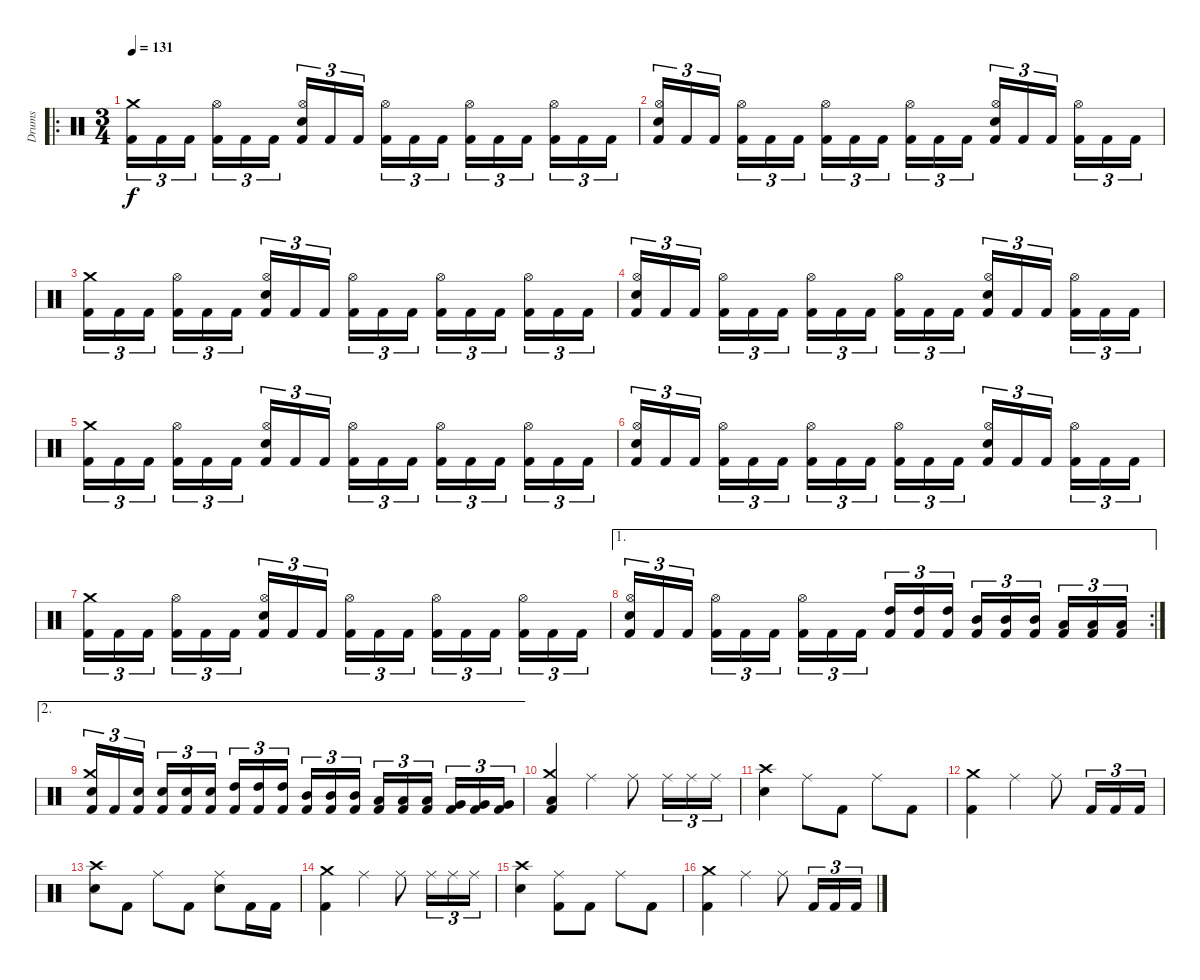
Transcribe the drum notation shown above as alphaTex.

\track ("Drums" "Drums") {instrument percussion}
\staff {score}
\articulation defaults
\ro
\ts (3 4)
\tempo 131
\clef neutral
\ks c
("Kick (hit) 2" "Crash medium (hit)").16{tu (3 2) dy f} "Kick (hit) 2".16{tu (3 2)} "Kick (hit) 2".16{tu (3 2)} ("Kick (hit) 2" "Hi-Hat (open)").16{tu (3 2)} "Kick (hit) 2".16{tu (3 2)} "Kick (hit) 2".16{tu (3 2)} ("Kick (hit) 2" "Electric Snare (hit)" "Hi-Hat (open)").16{tu (3 2)} "Kick (hit) 2".16{tu (3 2)} "Kick (hit) 2".16{tu (3 2)} ("Kick (hit) 2" "Hi-Hat (open)").16{tu (3 2)} "Kick (hit) 2".16{tu (3 2)} "Kick (hit) 2".16{tu (3 2)} ("Kick (hit) 2" "Hi-Hat (open)").16{tu (3 2)} "Kick (hit) 2".16{tu (3 2)} "Kick (hit) 2".16{tu (3 2)} ("Kick (hit) 2" "Hi-Hat (open)").16{tu (3 2)} "Kick (hit) 2".16{tu (3 2)} "Kick (hit) 2".16{tu (3 2)} |
("Kick (hit) 2" "Electric Snare (hit)" "Hi-Hat (open)").16{tu (3 2)} "Kick (hit) 2".16{tu (3 2)} "Kick (hit) 2".16{tu (3 2)} ("Kick (hit) 2" "Hi-Hat (open)").16{tu (3 2)} "Kick (hit) 2".16{tu (3 2)} "Kick (hit) 2".16{tu (3 2)} ("Kick (hit) 2" "Hi-Hat (open)").16{tu (3 2)} "Kick (hit) 2".16{tu (3 2)} "Kick (hit) 2".16{tu (3 2)} ("Kick (hit) 2" "Hi-Hat (open)").16{tu (3 2)} "Kick (hit) 2".16{tu (3 2)} "Kick (hit) 2".16{tu (3 2)} ("Kick (hit) 2" "Electric Snare (hit)" "Hi-Hat (open)").16{tu (3 2)} "Kick (hit) 2".16{tu (3 2)} "Kick (hit) 2".16{tu (3 2)} ("Kick (hit) 2" "Hi-Hat (open)").16{tu (3 2)} "Kick (hit) 2".16{tu (3 2)} "Kick (hit) 2".16{tu (3 2)} |
("Kick (hit) 2" "Crash medium (hit)").16{tu (3 2)} "Kick (hit) 2".16{tu (3 2)} "Kick (hit) 2".16{tu (3 2)} ("Kick (hit) 2" "Hi-Hat (open)").16{tu (3 2)} "Kick (hit) 2".16{tu (3 2)} "Kick (hit) 2".16{tu (3 2)} ("Kick (hit) 2" "Electric Snare (hit)" "Hi-Hat (open)").16{tu (3 2)} "Kick (hit) 2".16{tu (3 2)} "Kick (hit) 2".16{tu (3 2)} ("Kick (hit) 2" "Hi-Hat (open)").16{tu (3 2)} "Kick (hit) 2".16{tu (3 2)} "Kick (hit) 2".16{tu (3 2)} ("Kick (hit) 2" "Hi-Hat (open)").16{tu (3 2)} "Kick (hit) 2".16{tu (3 2)} "Kick (hit) 2".16{tu (3 2)} ("Kick (hit) 2" "Hi-Hat (open)").16{tu (3 2)} "Kick (hit) 2".16{tu (3 2)} "Kick (hit) 2".16{tu (3 2)} |
("Kick (hit) 2" "Electric Snare (hit)" "Hi-Hat (open)").16{tu (3 2)} "Kick (hit) 2".16{tu (3 2)} "Kick (hit) 2".16{tu (3 2)} ("Kick (hit) 2" "Hi-Hat (open)").16{tu (3 2)} "Kick (hit) 2".16{tu (3 2)} "Kick (hit) 2".16{tu (3 2)} ("Kick (hit) 2" "Hi-Hat (open)").16{tu (3 2)} "Kick (hit) 2".16{tu (3 2)} "Kick (hit) 2".16{tu (3 2)} ("Kick (hit) 2" "Hi-Hat (open)").16{tu (3 2)} "Kick (hit) 2".16{tu (3 2)} "Kick (hit) 2".16{tu (3 2)} ("Kick (hit) 2" "Electric Snare (hit)" "Hi-Hat (open)").16{tu (3 2)} "Kick (hit) 2".16{tu (3 2)} "Kick (hit) 2".16{tu (3 2)} ("Kick (hit) 2" "Hi-Hat (open)").16{tu (3 2)} "Kick (hit) 2".16{tu (3 2)} "Kick (hit) 2".16{tu (3 2)} |
("Kick (hit) 2" "Crash medium (hit)").16{tu (3 2)} "Kick (hit) 2".16{tu (3 2)} "Kick (hit) 2".16{tu (3 2)} ("Kick (hit) 2" "Hi-Hat (open)").16{tu (3 2)} "Kick (hit) 2".16{tu (3 2)} "Kick (hit) 2".16{tu (3 2)} ("Kick (hit) 2" "Electric Snare (hit)" "Hi-Hat (open)").16{tu (3 2)} "Kick (hit) 2".16{tu (3 2)} "Kick (hit) 2".16{tu (3 2)} ("Kick (hit) 2" "Hi-Hat (open)").16{tu (3 2)} "Kick (hit) 2".16{tu (3 2)} "Kick (hit) 2".16{tu (3 2)} ("Kick (hit) 2" "Hi-Hat (open)").16{tu (3 2)} "Kick (hit) 2".16{tu (3 2)} "Kick (hit) 2".16{tu (3 2)} ("Kick (hit) 2" "Hi-Hat (open)").16{tu (3 2)} "Kick (hit) 2".16{tu (3 2)} "Kick (hit) 2".16{tu (3 2)} |
("Kick (hit) 2" "Electric Snare (hit)" "Hi-Hat (open)").16{tu (3 2)} "Kick (hit) 2".16{tu (3 2)} "Kick (hit) 2".16{tu (3 2)} ("Kick (hit) 2" "Hi-Hat (open)").16{tu (3 2)} "Kick (hit) 2".16{tu (3 2)} "Kick (hit) 2".16{tu (3 2)} ("Kick (hit) 2" "Hi-Hat (open)").16{tu (3 2)} "Kick (hit) 2".16{tu (3 2)} "Kick (hit) 2".16{tu (3 2)} ("Kick (hit) 2" "Hi-Hat (open)").16{tu (3 2)} "Kick (hit) 2".16{tu (3 2)} "Kick (hit) 2".16{tu (3 2)} ("Kick (hit) 2" "Electric Snare (hit)" "Hi-Hat (open)").16{tu (3 2)} "Kick (hit) 2".16{tu (3 2)} "Kick (hit) 2".16{tu (3 2)} ("Kick (hit) 2" "Hi-Hat (open)").16{tu (3 2)} "Kick (hit) 2".16{tu (3 2)} "Kick (hit) 2".16{tu (3 2)} |
("Kick (hit) 2" "Crash medium (hit)").16{tu (3 2)} "Kick (hit) 2".16{tu (3 2)} "Kick (hit) 2".16{tu (3 2)} ("Kick (hit) 2" "Hi-Hat (open)").16{tu (3 2)} "Kick (hit) 2".16{tu (3 2)} "Kick (hit) 2".16{tu (3 2)} ("Kick (hit) 2" "Electric Snare (hit)" "Hi-Hat (open)").16{tu (3 2)} "Kick (hit) 2".16{tu (3 2)} "Kick (hit) 2".16{tu (3 2)} ("Kick (hit) 2" "Hi-Hat (open)").16{tu (3 2)} "Kick (hit) 2".16{tu (3 2)} "Kick (hit) 2".16{tu (3 2)} ("Kick (hit) 2" "Hi-Hat (open)").16{tu (3 2)} "Kick (hit) 2".16{tu (3 2)} "Kick (hit) 2".16{tu (3 2)} ("Kick (hit) 2" "Hi-Hat (open)").16{tu (3 2)} "Kick (hit) 2".16{tu (3 2)} "Kick (hit) 2".16{tu (3 2)} |
\ae 1
\rc 2
("Kick (hit) 2" "Electric Snare (hit)" "Hi-Hat (open)").16{tu (3 2)} "Kick (hit) 2".16{tu (3 2)} "Kick (hit) 2".16{tu (3 2)} ("Kick (hit) 2" "Hi-Hat (open)").16{tu (3 2)} "Kick (hit) 2".16{tu (3 2)} "Kick (hit) 2".16{tu (3 2)} ("Kick (hit) 2" "Hi-Hat (open)").16{tu (3 2)} "Kick (hit) 2".16{tu (3 2)} "Kick (hit) 2".16{tu (3 2)} ("Kick (hit) 2" "High Tom (hit)").16{tu (3 2)} ("Kick (hit) 2" "High Tom (hit)").16{tu (3 2)} ("Kick (hit) 2" "High Tom (hit)").16{tu (3 2)} ("Kick (hit) 2" "Mid Tom (hit)").16{tu (3 2)} ("Kick (hit) 2" "Mid Tom (hit)").16{tu (3 2)} ("Kick (hit) 2" "Mid Tom (hit)").16{tu (3 2)} ("Kick (hit) 2" "Low Tom (hit)").16{tu (3 2)} ("Kick (hit) 2" "Low Tom (hit)").16{tu (3 2)} ("Kick (hit) 2" "Low Tom (hit)").16{tu (3 2)} |
\ae 2
("Kick (hit) 2" "Electric Snare (hit)" "Crash medium (hit)").16{tu (3 2)} "Kick (hit) 2".16{tu (3 2)} ("Kick (hit) 2" "Electric Snare (hit)").16{tu (3 2)} ("Kick (hit) 2" "Electric Snare (hit)").16{tu (3 2)} ("Kick (hit) 2" "Electric Snare (hit)").16{tu (3 2)} ("Kick (hit) 2" "Electric Snare (hit)").16{tu (3 2)} ("Kick (hit) 2" "High Tom (hit)").16{tu (3 2)} ("Kick (hit) 2" "High Tom (hit)").16{tu (3 2)} ("Kick (hit) 2" "High Tom (hit)").16{tu (3 2)} ("Kick (hit) 2" "Mid Tom (hit)").16{tu (3 2)} ("Kick (hit) 2" "Mid Tom (hit)").16{tu (3 2)} ("Kick (hit) 2" "Mid Tom (hit)").16{tu (3 2)} ("Kick (hit) 2" "Low Tom (hit)").16{tu (3 2)} ("Kick (hit) 2" "Low Tom (hit)").16{tu (3 2)} ("Kick (hit) 2" "Low Tom (hit)").16{tu (3 2)} ("Kick (hit) 2" "Very Low Tom (hit)").16{tu (3 2)} ("Kick (hit) 2" "Very Low Tom (hit)").16{tu (3 2)} ("Kick (hit) 2" "Very Low Tom (hit)").16{tu (3 2)} |
("Kick (hit) 2" "Low Floor Tom (hit)" "Crash medium (hit)").4 "Ride (middle)".4 "Ride (middle)".8 "Ride (middle)".16{tu (3 2)} "Ride (middle)".16{tu (3 2)} "Ride (middle)".16{tu (3 2)} |
("Electric Snare (hit)" "Crash high (hit)").4 "Ride (middle)".8 "Kick (hit) 2".8 "Ride (middle)".8 "Kick (hit) 2".8 |
("Kick (hit) 2" "Crash medium (hit)").4 "Ride (middle)".4 "Ride (middle)".8 "Kick (hit) 2".16{tu (3 2)} "Kick (hit) 2".16{tu (3 2)} "Kick (hit) 2".16{tu (3 2)} |
("Electric Snare (hit)" "Crash high (hit)").8 "Kick (hit) 2".8 "Ride (middle)".8 "Kick (hit) 2".8 ("Electric Snare (hit)" "Ride (middle)").8 "Kick (hit) 2".16 "Kick (hit) 2".16 |
("Kick (hit) 2" "Crash medium (hit)").4 "Ride (middle)".4 "Ride (middle)".8 "Ride (middle)".16{tu (3 2)} "Ride (middle)".16{tu (3 2)} "Ride (middle)".16{tu (3 2)} |
("Electric Snare (hit)" "Crash high (hit)").4 ("Kick (hit) 2" "Ride (middle)").8 "Kick (hit) 2".8 "Ride (middle)".8 "Kick (hit) 2".8 |
("Kick (hit) 2" "Crash medium (hit)").4 "Ride (middle)".4 "Ride (middle)".8 "Kick (hit) 2".16{tu (3 2)} "Kick (hit) 2".16{tu (3 2)} "Kick (hit) 2".16{tu (3 2)}
